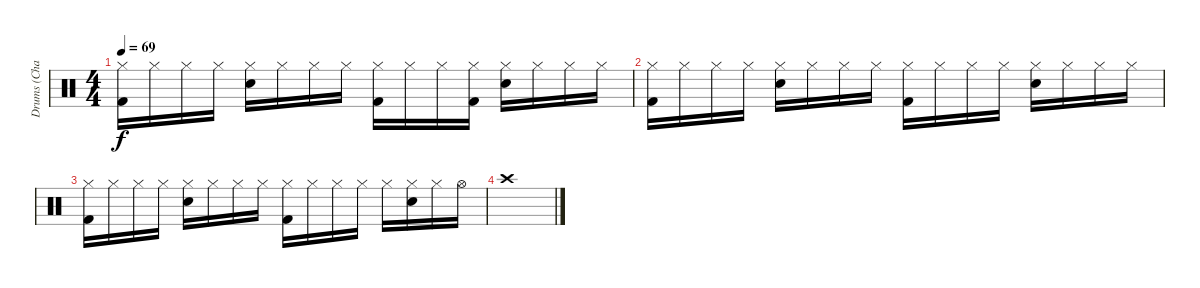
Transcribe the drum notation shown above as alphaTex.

\track ("Drums (Charlie)" "Drums (Cha") {instrument percussion}
\staff {score}
\articulation defaults
\ts (4 4)
\tempo 69
\clef neutral
\ks c
("Hi-Hat (closed)" "Kick (hit) 2").16{dy f} "Hi-Hat (closed)".16 "Hi-Hat (closed)".16 "Hi-Hat (closed)".16 ("Hi-Hat (closed)" "Snare (hit) 2").16 "Hi-Hat (closed)".16 "Hi-Hat (closed)".16 "Hi-Hat (closed)".16 ("Hi-Hat (closed)" "Kick (hit) 2").16 "Hi-Hat (closed)".16 "Hi-Hat (closed)".16 ("Hi-Hat (closed)" "Kick (hit) 2").16 ("Hi-Hat (closed)" "Snare (hit) 2").16 "Hi-Hat (closed)".16 "Hi-Hat (closed)".16 "Hi-Hat (closed)".16 |
("Hi-Hat (closed)" "Kick (hit) 2").16 "Hi-Hat (closed)".16 "Hi-Hat (closed)".16 "Hi-Hat (closed)".16 ("Hi-Hat (closed)" "Snare (hit) 2").16 "Hi-Hat (closed)".16 "Hi-Hat (closed)".16 "Hi-Hat (closed)".16 ("Hi-Hat (closed)" "Kick (hit) 2").16 "Hi-Hat (closed)".16 "Hi-Hat (closed)".16 "Hi-Hat (closed)".16 ("Hi-Hat (closed)" "Snare (hit) 2").16 "Hi-Hat (closed)".16 "Hi-Hat (closed)".16 "Hi-Hat (closed)".16 |
("Hi-Hat (closed)" "Kick (hit) 2").16 "Hi-Hat (closed)".16 "Hi-Hat (closed)".16 "Hi-Hat (closed)".16 ("Hi-Hat (closed)" "Snare (hit) 2").16 "Hi-Hat (closed)".16 "Hi-Hat (closed)".16 "Hi-Hat (closed)".16 ("Hi-Hat (closed)" "Kick (hit) 2").16 "Hi-Hat (closed)".16 "Hi-Hat (closed)".16 "Hi-Hat (closed)".16 "Hi-Hat (closed)".16 ("Hi-Hat (closed)" "Snare (hit) 2").16 "Hi-Hat (closed)".16 "Hi-Hat (open)".16 |
"Crash high (hit)".1
